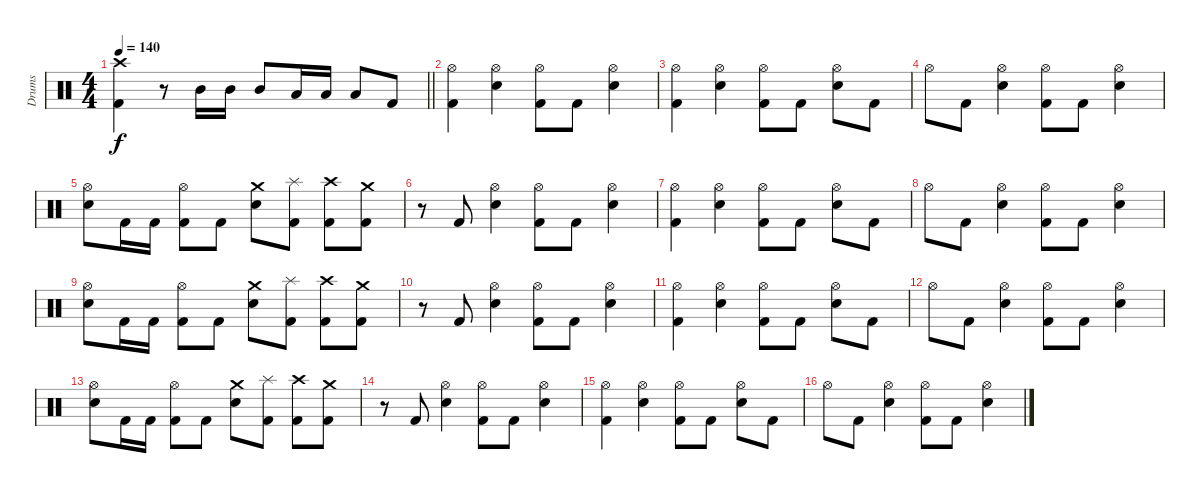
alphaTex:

\track ("Drums" "Drums") {instrument percussion}
\staff {score}
\articulation defaults
\ts (4 4)
\tempo 140
\clef neutral
\barLineRight lightlight
\ks c
("Crash high (hit)" "Kick (hit) 2").4{dy f} r.8 "Mid Tom (hit)".16 "Mid Tom (hit)".16 "Mid Tom (hit)".8 "Low Tom (hit)".16 "Low Tom (hit)".16 "Low Tom (hit)".8 "Kick (hit) 2".8 |
("Hi-Hat (open)" "Kick (hit) 2").4 ("Hi-Hat (open)" "Electric Snare (hit)").4 ("Hi-Hat (open)" "Kick (hit) 2").8 "Kick (hit) 2".8 ("Hi-Hat (open)" "Electric Snare (hit)").4 |
("Hi-Hat (open)" "Kick (hit) 2").4 ("Hi-Hat (open)" "Electric Snare (hit)").4 ("Hi-Hat (open)" "Kick (hit) 2").8 "Kick (hit) 2".8 ("Hi-Hat (open)" "Electric Snare (hit)").8 "Kick (hit) 2".8 |
"Hi-Hat (open)".8 "Kick (hit) 2".8 ("Hi-Hat (open)" "Electric Snare (hit)").4 ("Hi-Hat (open)" "Kick (hit) 2").8 "Kick (hit) 2".8 ("Hi-Hat (open)" "Electric Snare (hit)").4 |
("Hi-Hat (open)" "Electric Snare (hit)").8 "Kick (hit) 2".16 "Kick (hit) 2".16 ("Hi-Hat (open)" "Kick (hit) 2").8 "Kick (hit) 2".8 ("Crash medium (hit)" "Electric Snare (hit)").8 ("Splash (hit)" "Kick (hit) 2").8 ("Crash high (hit)" "Kick (hit) 2").8 ("Crash medium (hit)" "Kick (hit) 2").8 |
r.8 "Kick (hit) 2".8 ("Hi-Hat (open)" "Electric Snare (hit)").4 ("Hi-Hat (open)" "Kick (hit) 2").8 "Kick (hit) 2".8 ("Hi-Hat (open)" "Electric Snare (hit)").4 |
("Hi-Hat (open)" "Kick (hit) 2").4 ("Hi-Hat (open)" "Electric Snare (hit)").4 ("Hi-Hat (open)" "Kick (hit) 2").8 "Kick (hit) 2".8 ("Hi-Hat (open)" "Electric Snare (hit)").8 "Kick (hit) 2".8 |
"Hi-Hat (open)".8 "Kick (hit) 2".8 ("Hi-Hat (open)" "Electric Snare (hit)").4 ("Hi-Hat (open)" "Kick (hit) 2").8 "Kick (hit) 2".8 ("Hi-Hat (open)" "Electric Snare (hit)").4 |
("Hi-Hat (open)" "Electric Snare (hit)").8 "Kick (hit) 2".16 "Kick (hit) 2".16 ("Hi-Hat (open)" "Kick (hit) 2").8 "Kick (hit) 2".8 ("Crash medium (hit)" "Electric Snare (hit)").8 ("Splash (hit)" "Kick (hit) 2").8 ("Crash high (hit)" "Kick (hit) 2").8 ("Crash medium (hit)" "Kick (hit) 2").8 |
r.8 "Kick (hit) 2".8 ("Hi-Hat (open)" "Electric Snare (hit)").4 ("Hi-Hat (open)" "Kick (hit) 2").8 "Kick (hit) 2".8 ("Hi-Hat (open)" "Electric Snare (hit)").4 |
("Hi-Hat (open)" "Kick (hit) 2").4 ("Hi-Hat (open)" "Electric Snare (hit)").4 ("Hi-Hat (open)" "Kick (hit) 2").8 "Kick (hit) 2".8 ("Hi-Hat (open)" "Electric Snare (hit)").8 "Kick (hit) 2".8 |
"Hi-Hat (open)".8 "Kick (hit) 2".8 ("Hi-Hat (open)" "Electric Snare (hit)").4 ("Hi-Hat (open)" "Kick (hit) 2").8 "Kick (hit) 2".8 ("Hi-Hat (open)" "Electric Snare (hit)").4 |
("Hi-Hat (open)" "Electric Snare (hit)").8 "Kick (hit) 2".16 "Kick (hit) 2".16 ("Hi-Hat (open)" "Kick (hit) 2").8 "Kick (hit) 2".8 ("Crash medium (hit)" "Electric Snare (hit)").8 ("Splash (hit)" "Kick (hit) 2").8 ("Crash high (hit)" "Kick (hit) 2").8 ("Crash medium (hit)" "Kick (hit) 2").8 |
r.8 "Kick (hit) 2".8 ("Hi-Hat (open)" "Electric Snare (hit)").4 ("Hi-Hat (open)" "Kick (hit) 2").8 "Kick (hit) 2".8 ("Hi-Hat (open)" "Electric Snare (hit)").4 |
("Hi-Hat (open)" "Kick (hit) 2").4 ("Hi-Hat (open)" "Electric Snare (hit)").4 ("Hi-Hat (open)" "Kick (hit) 2").8 "Kick (hit) 2".8 ("Hi-Hat (open)" "Electric Snare (hit)").8 "Kick (hit) 2".8 |
"Hi-Hat (open)".8 "Kick (hit) 2".8 ("Hi-Hat (open)" "Electric Snare (hit)").4 ("Hi-Hat (open)" "Kick (hit) 2").8 "Kick (hit) 2".8 ("Hi-Hat (open)" "Electric Snare (hit)").4
